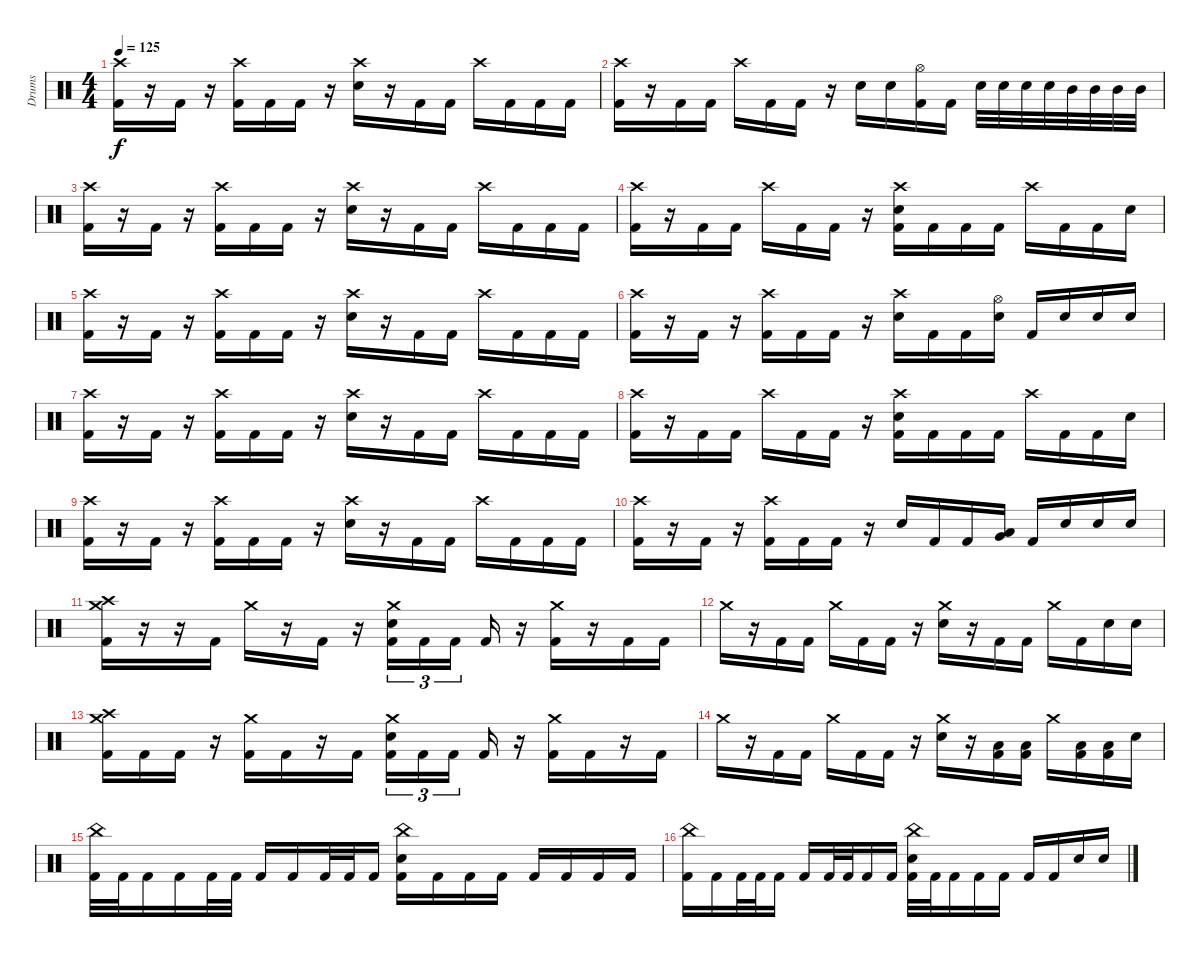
\track ("Drums" "Drums") {instrument percussion}
\staff {score}
\articulation defaults
\ts (4 4)
\tempo 125
\clef neutral
\ks c
("Crash high (hit)" "Kick (hit) 2").16{dy f} r.16 "Kick (hit) 2".16 r.16 ("Crash high (hit)" "Kick (hit) 2").16 "Kick (hit) 2".16 "Kick (hit) 2".16 r.16 ("Crash high (hit)" "Electric Snare (hit)").16 r.16 "Kick (hit) 2".16 "Kick (hit) 2".16 "Crash high (hit)".16 "Kick (hit) 2".16 "Kick (hit) 2".16 "Kick (hit) 2".16 |
("Crash high (hit)" "Kick (hit) 2").16 r.16 "Kick (hit) 2".16 "Kick (hit) 2".16 "Crash high (hit)".16 "Kick (hit) 2".16 "Kick (hit) 2".16 r.16 "Electric Snare (hit)".16 "Electric Snare (hit)".16 ("Hi-Hat (open)" "Kick (hit) 2").16 "Kick (hit) 2".16 "Electric Snare (hit)".32 "Electric Snare (hit)".32 "Electric Snare (hit)".32 "Electric Snare (hit)".32 "Mid Tom (hit)".32 "Mid Tom (hit)".32 "Mid Tom (hit)".32 "Mid Tom (hit)".32 |
("Crash high (hit)" "Kick (hit) 2").16 r.16 "Kick (hit) 2".16 r.16 ("Crash high (hit)" "Kick (hit) 2").16 "Kick (hit) 2".16 "Kick (hit) 2".16 r.16 ("Crash high (hit)" "Electric Snare (hit)").16 r.16 "Kick (hit) 2".16 "Kick (hit) 2".16 "Crash high (hit)".16 "Kick (hit) 2".16 "Kick (hit) 2".16 "Kick (hit) 2".16 |
("Crash high (hit)" "Kick (hit) 2").16 r.16 "Kick (hit) 2".16 "Kick (hit) 2".16 "Crash high (hit)".16 "Kick (hit) 2".16 "Kick (hit) 2".16 r.16 ("Crash high (hit)" "Electric Snare (hit)" "Kick (hit) 2").16 "Kick (hit) 2".16 "Kick (hit) 2".16 "Kick (hit) 2".16 "Crash high (hit)".16 "Kick (hit) 2".16 "Kick (hit) 2".16 "Electric Snare (hit)".16 |
("Crash high (hit)" "Kick (hit) 2").16 r.16 "Kick (hit) 2".16 r.16 ("Crash high (hit)" "Kick (hit) 2").16 "Kick (hit) 2".16 "Kick (hit) 2".16 r.16 ("Crash high (hit)" "Electric Snare (hit)").16 r.16 "Kick (hit) 2".16 "Kick (hit) 2".16 "Crash high (hit)".16 "Kick (hit) 2".16 "Kick (hit) 2".16 "Kick (hit) 2".16 |
("Crash high (hit)" "Kick (hit) 2").16 r.16 "Kick (hit) 2".16 r.16 ("Crash high (hit)" "Kick (hit) 2").16 "Kick (hit) 2".16 "Kick (hit) 2".16 r.16 ("Crash high (hit)" "Electric Snare (hit)").16 "Kick (hit) 2".16 "Kick (hit) 2".16 ("Hi-Hat (open)" "Electric Snare (hit)").16 "Kick (hit) 2".16 "Electric Snare (hit)".16 "Electric Snare (hit)".16 "Electric Snare (hit)".16 |
("Crash high (hit)" "Kick (hit) 2").16 r.16 "Kick (hit) 2".16 r.16 ("Crash high (hit)" "Kick (hit) 2").16 "Kick (hit) 2".16 "Kick (hit) 2".16 r.16 ("Crash high (hit)" "Electric Snare (hit)").16 r.16 "Kick (hit) 2".16 "Kick (hit) 2".16 "Crash high (hit)".16 "Kick (hit) 2".16 "Kick (hit) 2".16 "Kick (hit) 2".16 |
("Crash high (hit)" "Kick (hit) 2").16 r.16 "Kick (hit) 2".16 "Kick (hit) 2".16 "Crash high (hit)".16 "Kick (hit) 2".16 "Kick (hit) 2".16 r.16 ("Crash high (hit)" "Electric Snare (hit)" "Kick (hit) 2").16 "Kick (hit) 2".16 "Kick (hit) 2".16 "Kick (hit) 2".16 "Crash high (hit)".16 "Kick (hit) 2".16 "Kick (hit) 2".16 "Electric Snare (hit)".16 |
("Crash high (hit)" "Kick (hit) 2").16 r.16 "Kick (hit) 2".16 r.16 ("Crash high (hit)" "Kick (hit) 2").16 "Kick (hit) 2".16 "Kick (hit) 2".16 r.16 ("Crash high (hit)" "Electric Snare (hit)").16 r.16 "Kick (hit) 2".16 "Kick (hit) 2".16 "Crash high (hit)".16 "Kick (hit) 2".16 "Kick (hit) 2".16 "Kick (hit) 2".16 |
("Crash high (hit)" "Kick (hit) 2").16 r.16 "Kick (hit) 2".16 r.16 ("Crash high (hit)" "Kick (hit) 2").16 "Kick (hit) 2".16 "Kick (hit) 2".16 r.16 "Electric Snare (hit)".16 "Kick (hit) 2".16 "Kick (hit) 2".16 ("Very Low Tom (hit)" "Low Floor Tom (hit)").16 "Kick (hit) 2".16 "Electric Snare (hit)".16 "Electric Snare (hit)".16 "Electric Snare (hit)".16 |
("Crash high (hit)" "Crash medium (hit)" "Kick (hit) 2").16 r.16 r.16 "Kick (hit) 2".16 "Crash medium (hit)".16 r.16 "Kick (hit) 2".16 r.16 ("Crash medium (hit)" "Electric Snare (hit)" "Kick (hit) 2").16{tu (3 2)} "Kick (hit) 2".16{tu (3 2)} "Kick (hit) 2".16{tu (3 2) beam splitsecondary} "Kick (hit) 2".16 r.16 ("Crash medium (hit)" "Kick (hit) 2").16 r.16 "Kick (hit) 2".16 "Kick (hit) 2".16 |
"Crash medium (hit)".16 r.16 "Kick (hit) 2".16 "Kick (hit) 2".16 "Crash medium (hit)".16 "Kick (hit) 2".16 "Kick (hit) 2".16 r.16 ("Crash medium (hit)" "Electric Snare (hit)").16 r.16 "Kick (hit) 2".16 "Kick (hit) 2".16 "Crash medium (hit)".16 "Kick (hit) 2".16 "Electric Snare (hit)".16 "Electric Snare (hit)".16 |
("Crash high (hit)" "Crash medium (hit)" "Kick (hit) 2").16 "Kick (hit) 2".16 "Kick (hit) 2".16 r.16 ("Crash medium (hit)" "Kick (hit) 2").16 "Kick (hit) 2".16 r.16 "Kick (hit) 2".16 ("Crash medium (hit)" "Electric Snare (hit)" "Kick (hit) 2").16{tu (3 2)} "Kick (hit) 2".16{tu (3 2)} "Kick (hit) 2".16{tu (3 2) beam splitsecondary} "Kick (hit) 2".16 r.16 ("Crash medium (hit)" "Kick (hit) 2").16 "Kick (hit) 2".16 r.16 "Kick (hit) 2".16 |
"Crash medium (hit)".16 r.16 "Kick (hit) 2".16 "Kick (hit) 2".16 "Crash medium (hit)".16 "Kick (hit) 2".16 "Kick (hit) 2".16 r.16 ("Crash medium (hit)" "Electric Snare (hit)").16 r.16 ("Low Floor Tom (hit)" "Kick (hit) 2").16 ("Low Floor Tom (hit)" "Kick (hit) 2").16 "Crash medium (hit)".16 ("Low Floor Tom (hit)" "Kick (hit) 2").16 ("Low Floor Tom (hit)" "Kick (hit) 2").16 "Electric Snare (hit)".16 |
("China (hit)" "Kick (hit) 2").32 "Kick (hit) 2".32 "Kick (hit) 2".16 "Kick (hit) 2".16 "Kick (hit) 2".32 "Kick (hit) 2".32 "Kick (hit) 2".16 "Kick (hit) 2".16 "Kick (hit) 2".32 "Kick (hit) 2".32 "Kick (hit) 2".16 ("China (hit)" "Electric Snare (hit)" "Kick (hit) 2").16 "Kick (hit) 2".16 "Kick (hit) 2".16 "Kick (hit) 2".16 "Kick (hit) 2".16 "Kick (hit) 2".16 "Kick (hit) 2".16 "Kick (hit) 2".16 |
("China (hit)" "Kick (hit) 2").16 "Kick (hit) 2".16 "Kick (hit) 2".32 "Kick (hit) 2".32 "Kick (hit) 2".16 "Kick (hit) 2".16 "Kick (hit) 2".32 "Kick (hit) 2".32 "Kick (hit) 2".16 "Kick (hit) 2".16 ("China (hit)" "Electric Snare (hit)" "Kick (hit) 2").32 "Kick (hit) 2".32 "Kick (hit) 2".16 "Kick (hit) 2".16 "Kick (hit) 2".16 "Kick (hit) 2".16 "Kick (hit) 2".16 "Electric Snare (hit)".16 "Electric Snare (hit)".16
